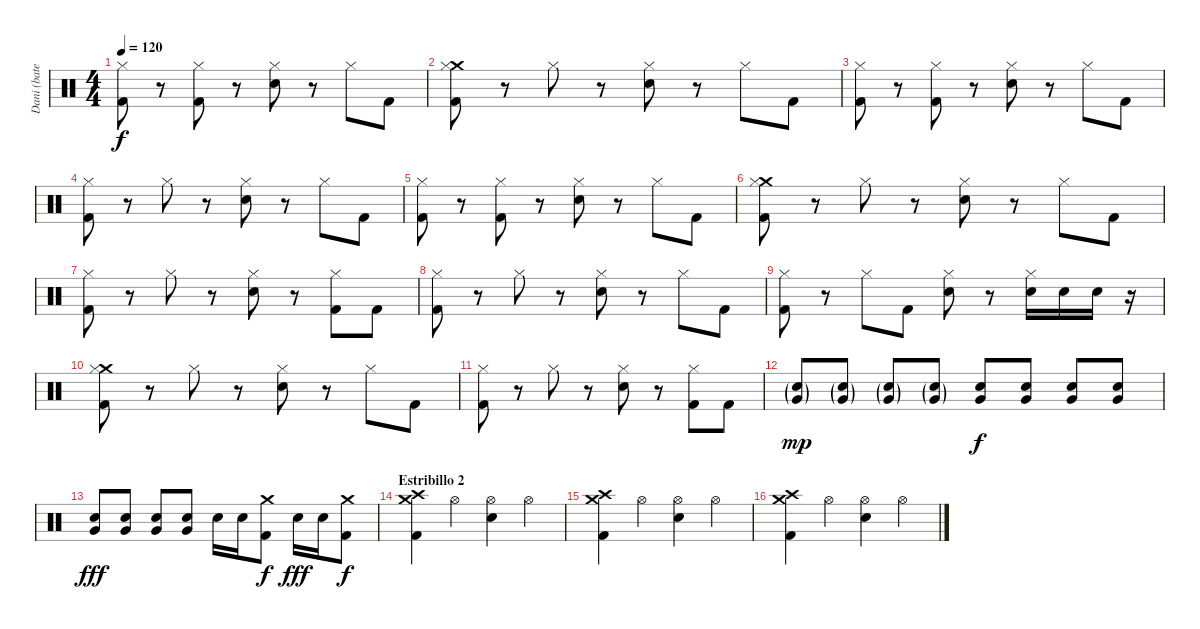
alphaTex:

\track ("Dani (batería)" "Dani (bate") {instrument percussion}
\staff {score}
\articulation defaults
\ts (4 4)
\tempo 120
\clef neutral
\ks c
("Hi-Hat (closed)" "Kick (hit) 2").8{dy f} r.8 ("Hi-Hat (closed)" "Kick (hit) 2").8 r.8 ("Hi-Hat (closed)" "Electric Snare (hit)").8 r.8 "Hi-Hat (closed)".8 "Kick (hit) 2".8 |
("Crash medium (hit)" "Hi-Hat (closed)" "Kick (hit) 2").8 r.8 "Hi-Hat (closed)".8 r.8 ("Hi-Hat (closed)" "Electric Snare (hit)").8 r.8 "Hi-Hat (closed)".8 "Kick (hit) 2".8 |
("Hi-Hat (closed)" "Kick (hit) 2").8 r.8 ("Hi-Hat (closed)" "Kick (hit) 2").8 r.8 ("Hi-Hat (closed)" "Electric Snare (hit)").8 r.8 "Hi-Hat (closed)".8 "Kick (hit) 2".8 |
("Hi-Hat (closed)" "Kick (hit) 2").8 r.8 "Hi-Hat (closed)".8 r.8 ("Hi-Hat (closed)" "Electric Snare (hit)").8 r.8 "Hi-Hat (closed)".8 "Kick (hit) 2".8 |
("Hi-Hat (closed)" "Kick (hit) 2").8 r.8 ("Hi-Hat (closed)" "Kick (hit) 2").8 r.8 ("Hi-Hat (closed)" "Electric Snare (hit)").8 r.8 "Hi-Hat (closed)".8 "Kick (hit) 2".8 |
("Crash medium (hit)" "Hi-Hat (closed)" "Kick (hit) 2").8 r.8 "Hi-Hat (closed)".8 r.8 ("Hi-Hat (closed)" "Electric Snare (hit)").8 r.8 "Hi-Hat (closed)".8 "Kick (hit) 2".8 |
("Hi-Hat (closed)" "Kick (hit) 2").8 r.8 "Hi-Hat (closed)".8 r.8 ("Hi-Hat (closed)" "Electric Snare (hit)").8 r.8 ("Hi-Hat (closed)" "Kick (hit) 2").8 "Kick (hit) 2".8 |
("Hi-Hat (closed)" "Kick (hit) 2").8 r.8 "Hi-Hat (closed)".8 r.8 ("Hi-Hat (closed)" "Electric Snare (hit)").8 r.8 "Hi-Hat (closed)".8 "Kick (hit) 2".8 |
("Hi-Hat (closed)" "Kick (hit) 2").8 r.8 "Hi-Hat (closed)".8 "Kick (hit) 2".8 ("Hi-Hat (closed)" "Electric Snare (hit)").8 r.8 ("Hi-Hat (closed)" "Electric Snare (hit)").16 "Electric Snare (hit)".16 "Electric Snare (hit)".16 r.16 |
("Crash medium (hit)" "Hi-Hat (closed)" "Kick (hit) 2").8 r.8 "Hi-Hat (closed)".8 r.8 ("Hi-Hat (closed)" "Electric Snare (hit)").8 r.8 "Hi-Hat (closed)".8 "Kick (hit) 2".8 |
("Hi-Hat (closed)" "Kick (hit) 2").8 r.8 "Hi-Hat (closed)".8 r.8 ("Hi-Hat (closed)" "Electric Snare (hit)").8 r.8 ("Hi-Hat (closed)" "Kick (hit) 2").8 "Kick (hit) 2".8 |
("Very Low Tom (hit)"{g} "Electric Snare (hit)"{g}).8{dy mp} ("Very Low Tom (hit)"{g} "Electric Snare (hit)"{g}).8 ("Very Low Tom (hit)"{g} "Electric Snare (hit)"{g}).8 ("Very Low Tom (hit)"{g} "Electric Snare (hit)"{g}).8 ("Very Low Tom (hit)" "Electric Snare (hit)").8{dy f} ("Very Low Tom (hit)" "Electric Snare (hit)").8 ("Very Low Tom (hit)" "Electric Snare (hit)").8 ("Very Low Tom (hit)" "Electric Snare (hit)").8 |
("Very Low Tom (hit)" "Electric Snare (hit)").8{dy fff} ("Very Low Tom (hit)" "Electric Snare (hit)").8 ("Very Low Tom (hit)" "Electric Snare (hit)").8 ("Very Low Tom (hit)" "Electric Snare (hit)").8 "Electric Snare (hit)".16 "Electric Snare (hit)".16 ("Crash medium (hit)" "Kick (hit) 2").8{dy f} "Electric Snare (hit)".16{dy fff} "Electric Snare (hit)".16 ("Crash medium (hit)" "Kick (hit) 2").8{dy f} |
\section ("" "Estribillo 2")
("Crash high (hit)" "Crash medium (hit)" "Kick (hit) 2").4 "Hi-Hat (open)".4 ("Hi-Hat (open)" "Electric Snare (hit)").4 "Hi-Hat (open)".4 |
("Crash high (hit)" "Crash medium (hit)" "Kick (hit) 2").4 "Hi-Hat (open)".4 ("Hi-Hat (open)" "Electric Snare (hit)").4 "Hi-Hat (open)".4 |
("Crash high (hit)" "Crash medium (hit)" "Kick (hit) 2").4 "Hi-Hat (open)".4 ("Hi-Hat (open)" "Electric Snare (hit)").4 "Hi-Hat (open)".4
